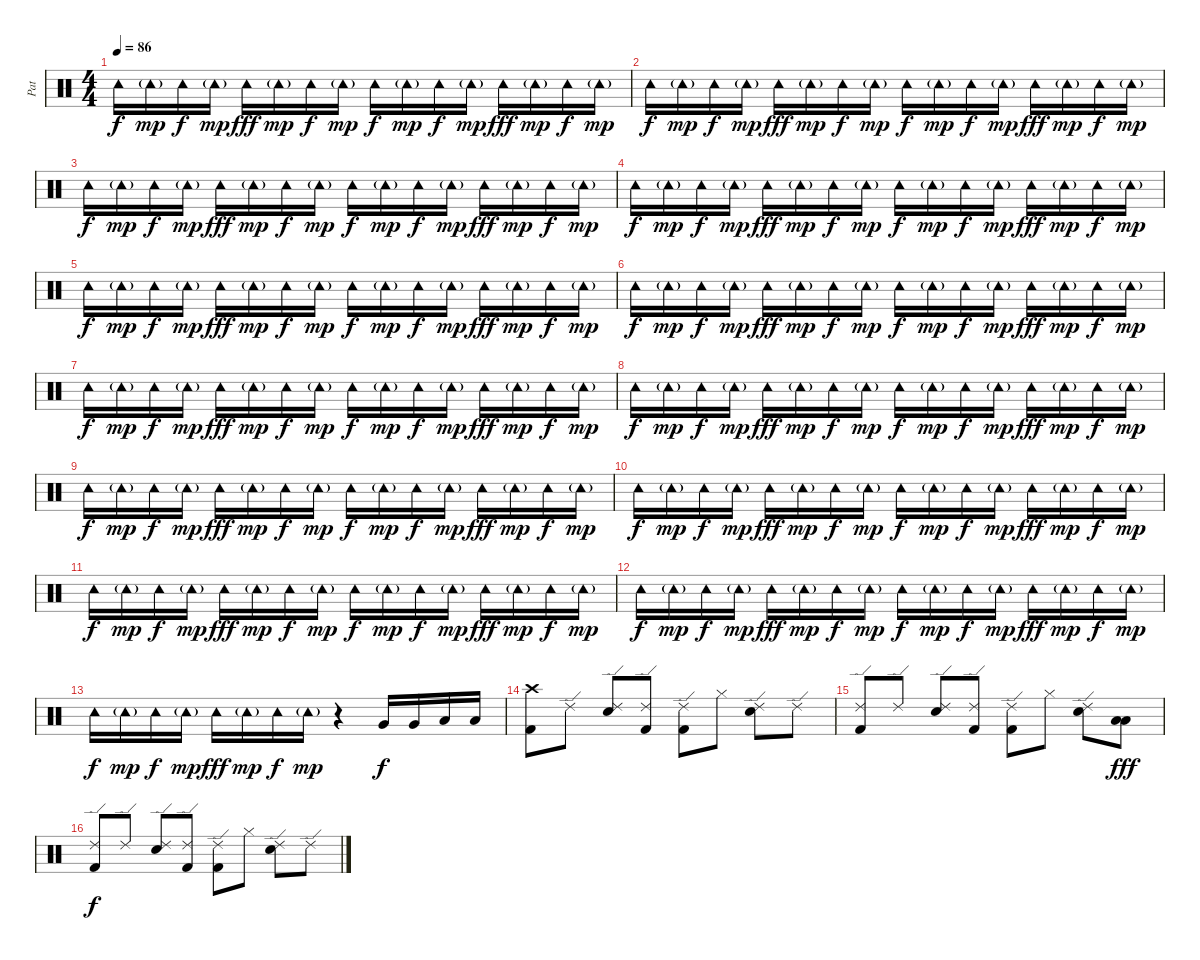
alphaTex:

\track ("Pat" "Pat") {instrument percussion}
\staff {score}
\articulation defaults
\ts (4 4)
\tempo 86
\clef neutral
\ks c "Tambourine (hit)".16{dy f volume 9} "Tambourine (hit)"{g}.16{dy mp} "Tambourine (hit)".16{dy f} "Tambourine (hit)"{g}.16{dy mp} "Tambourine (hit)".16{dy fff} "Tambourine (hit)"{g}.16{dy mp} "Tambourine (hit)".16{dy f} "Tambourine (hit)"{g}.16{dy mp} "Tambourine (hit)".16{dy f} "Tambourine (hit)"{g}.16{dy mp} "Tambourine (hit)".16{dy f} "Tambourine (hit)"{g}.16{dy mp} "Tambourine (hit)".16{dy fff} "Tambourine (hit)"{g}.16{dy mp} "Tambourine (hit)".16{dy f} "Tambourine (hit)"{g}.16{dy mp}
|
"Tambourine (hit)".16{dy f volume 7} "Tambourine (hit)"{g}.16{dy mp} "Tambourine (hit)".16{dy f} "Tambourine (hit)"{g}.16{dy mp} "Tambourine (hit)".16{dy fff} "Tambourine (hit)"{g}.16{dy mp} "Tambourine (hit)".16{dy f} "Tambourine (hit)"{g}.16{dy mp} "Tambourine (hit)".16{dy f} "Tambourine (hit)"{g}.16{dy mp} "Tambourine (hit)".16{dy f} "Tambourine (hit)"{g}.16{dy mp} "Tambourine (hit)".16{dy fff} "Tambourine (hit)"{g}.16{dy mp} "Tambourine (hit)".16{dy f} "Tambourine (hit)"{g}.16{dy mp} |
"Tambourine (hit)".16{dy f} "Tambourine (hit)"{g}.16{dy mp} "Tambourine (hit)".16{dy f} "Tambourine (hit)"{g}.16{dy mp} "Tambourine (hit)".16{dy fff} "Tambourine (hit)"{g}.16{dy mp} "Tambourine (hit)".16{dy f} "Tambourine (hit)"{g}.16{dy mp} "Tambourine (hit)".16{dy f} "Tambourine (hit)"{g}.16{dy mp} "Tambourine (hit)".16{dy f} "Tambourine (hit)"{g}.16{dy mp} "Tambourine (hit)".16{dy fff} "Tambourine (hit)"{g}.16{dy mp} "Tambourine (hit)".16{dy f} "Tambourine (hit)"{g}.16{dy mp} |
"Tambourine (hit)".16{dy f} "Tambourine (hit)"{g}.16{dy mp} "Tambourine (hit)".16{dy f} "Tambourine (hit)"{g}.16{dy mp} "Tambourine (hit)".16{dy fff} "Tambourine (hit)"{g}.16{dy mp} "Tambourine (hit)".16{dy f} "Tambourine (hit)"{g}.16{dy mp} "Tambourine (hit)".16{dy f} "Tambourine (hit)"{g}.16{dy mp} "Tambourine (hit)".16{dy f} "Tambourine (hit)"{g}.16{dy mp} "Tambourine (hit)".16{dy fff} "Tambourine (hit)"{g}.16{dy mp} "Tambourine (hit)".16{dy f} "Tambourine (hit)"{g}.16{dy mp} |
"Tambourine (hit)".16{dy f} "Tambourine (hit)"{g}.16{dy mp} "Tambourine (hit)".16{dy f} "Tambourine (hit)"{g}.16{dy mp} "Tambourine (hit)".16{dy fff} "Tambourine (hit)"{g}.16{dy mp} "Tambourine (hit)".16{dy f} "Tambourine (hit)"{g}.16{dy mp} "Tambourine (hit)".16{dy f} "Tambourine (hit)"{g}.16{dy mp} "Tambourine (hit)".16{dy f} "Tambourine (hit)"{g}.16{dy mp} "Tambourine (hit)".16{dy fff} "Tambourine (hit)"{g}.16{dy mp} "Tambourine (hit)".16{dy f} "Tambourine (hit)"{g}.16{dy mp} |
"Tambourine (hit)".16{dy f} "Tambourine (hit)"{g}.16{dy mp} "Tambourine (hit)".16{dy f} "Tambourine (hit)"{g}.16{dy mp} "Tambourine (hit)".16{dy fff} "Tambourine (hit)"{g}.16{dy mp} "Tambourine (hit)".16{dy f} "Tambourine (hit)"{g}.16{dy mp} "Tambourine (hit)".16{dy f} "Tambourine (hit)"{g}.16{dy mp} "Tambourine (hit)".16{dy f} "Tambourine (hit)"{g}.16{dy mp} "Tambourine (hit)".16{dy fff} "Tambourine (hit)"{g}.16{dy mp} "Tambourine (hit)".16{dy f} "Tambourine (hit)"{g}.16{dy mp} |
"Tambourine (hit)".16{dy f} "Tambourine (hit)"{g}.16{dy mp} "Tambourine (hit)".16{dy f} "Tambourine (hit)"{g}.16{dy mp} "Tambourine (hit)".16{dy fff} "Tambourine (hit)"{g}.16{dy mp} "Tambourine (hit)".16{dy f} "Tambourine (hit)"{g}.16{dy mp} "Tambourine (hit)".16{dy f} "Tambourine (hit)"{g}.16{dy mp} "Tambourine (hit)".16{dy f} "Tambourine (hit)"{g}.16{dy mp} "Tambourine (hit)".16{dy fff} "Tambourine (hit)"{g}.16{dy mp} "Tambourine (hit)".16{dy f} "Tambourine (hit)"{g}.16{dy mp} |
"Tambourine (hit)".16{dy f} "Tambourine (hit)"{g}.16{dy mp} "Tambourine (hit)".16{dy f} "Tambourine (hit)"{g}.16{dy mp} "Tambourine (hit)".16{dy fff} "Tambourine (hit)"{g}.16{dy mp} "Tambourine (hit)".16{dy f} "Tambourine (hit)"{g}.16{dy mp} "Tambourine (hit)".16{dy f} "Tambourine (hit)"{g}.16{dy mp} "Tambourine (hit)".16{dy f} "Tambourine (hit)"{g}.16{dy mp} "Tambourine (hit)".16{dy fff} "Tambourine (hit)"{g}.16{dy mp} "Tambourine (hit)".16{dy f} "Tambourine (hit)"{g}.16{dy mp} |
"Tambourine (hit)".16{dy f} "Tambourine (hit)"{g}.16{dy mp} "Tambourine (hit)".16{dy f} "Tambourine (hit)"{g}.16{dy mp} "Tambourine (hit)".16{dy fff} "Tambourine (hit)"{g}.16{dy mp} "Tambourine (hit)".16{dy f} "Tambourine (hit)"{g}.16{dy mp} "Tambourine (hit)".16{dy f} "Tambourine (hit)"{g}.16{dy mp} "Tambourine (hit)".16{dy f} "Tambourine (hit)"{g}.16{dy mp} "Tambourine (hit)".16{dy fff} "Tambourine (hit)"{g}.16{dy mp} "Tambourine (hit)".16{dy f} "Tambourine (hit)"{g}.16{dy mp} |
"Tambourine (hit)".16{dy f} "Tambourine (hit)"{g}.16{dy mp} "Tambourine (hit)".16{dy f} "Tambourine (hit)"{g}.16{dy mp} "Tambourine (hit)".16{dy fff} "Tambourine (hit)"{g}.16{dy mp} "Tambourine (hit)".16{dy f} "Tambourine (hit)"{g}.16{dy mp} "Tambourine (hit)".16{dy f} "Tambourine (hit)"{g}.16{dy mp} "Tambourine (hit)".16{dy f} "Tambourine (hit)"{g}.16{dy mp} "Tambourine (hit)".16{dy fff} "Tambourine (hit)"{g}.16{dy mp} "Tambourine (hit)".16{dy f} "Tambourine (hit)"{g}.16{dy mp} |
"Tambourine (hit)".16{dy f} "Tambourine (hit)"{g}.16{dy mp} "Tambourine (hit)".16{dy f} "Tambourine (hit)"{g}.16{dy mp} "Tambourine (hit)".16{dy fff} "Tambourine (hit)"{g}.16{dy mp} "Tambourine (hit)".16{dy f} "Tambourine (hit)"{g}.16{dy mp} "Tambourine (hit)".16{dy f} "Tambourine (hit)"{g}.16{dy mp} "Tambourine (hit)".16{dy f} "Tambourine (hit)"{g}.16{dy mp} "Tambourine (hit)".16{dy fff} "Tambourine (hit)"{g}.16{dy mp} "Tambourine (hit)".16{dy f} "Tambourine (hit)"{g}.16{dy mp} |
"Tambourine (hit)".16{dy f} "Tambourine (hit)"{g}.16{dy mp} "Tambourine (hit)".16{dy f} "Tambourine (hit)"{g}.16{dy mp} "Tambourine (hit)".16{dy fff} "Tambourine (hit)"{g}.16{dy mp} "Tambourine (hit)".16{dy f} "Tambourine (hit)"{g}.16{dy mp} "Tambourine (hit)".16{dy f} "Tambourine (hit)"{g}.16{dy mp} "Tambourine (hit)".16{dy f} "Tambourine (hit)"{g}.16{dy mp} "Tambourine (hit)".16{dy fff} "Tambourine (hit)"{g}.16{dy mp} "Tambourine (hit)".16{dy f} "Tambourine (hit)"{g}.16{dy mp} |
"Tambourine (hit)".16{dy f} "Tambourine (hit)"{g}.16{dy mp} "Tambourine (hit)".16{dy f} "Tambourine (hit)"{g}.16{dy mp} "Tambourine (hit)".16{dy fff} "Tambourine (hit)"{g}.16{dy mp} "Tambourine (hit)".16{dy f} "Tambourine (hit)"{g}.16{dy mp} r.4{volume 12} "Very Low Tom (hit)".16{dy f} "Very Low Tom (hit)".16 "Low Floor Tom (hit)".16 "Low Floor Tom (hit)".16 |
("Crash high (hit)" "Kick (hit) 2").8 "Ride (edge) 2".8 ("Ride (edge) 2" "Snare (hit) 2").8 ("Ride (edge) 2" "Kick (hit) 2").8 ("Ride (edge) 2" "Kick (hit) 2").8 "Hi-Hat (closed)".8 ("Ride (edge) 2" "Snare (hit) 2").8 "Ride (edge) 2".8 |
("Ride (edge) 2" "Kick (hit) 2").8 "Ride (edge) 2".8 ("Ride (edge) 2" "Snare (hit) 2").8 ("Ride (edge) 2" "Kick (hit) 2").8 ("Ride (edge) 2" "Kick (hit) 2").8 "Hi-Hat (closed)".8 ("Ride (edge) 2" "Snare (hit) 2").8 ("Low Floor Tom (hit)" "Low Floor Tom (hit)").8{dy fff} |
("Ride (edge) 2" "Kick (hit) 2").8{dy f} "Ride (edge) 2".8 ("Ride (edge) 2" "Snare (hit) 2").8 ("Ride (edge) 2" "Kick (hit) 2").8 ("Ride (edge) 2" "Kick (hit) 2").8 "Hi-Hat (closed)".8 ("Ride (edge) 2" "Snare (hit) 2").8 "Ride (edge) 2".8
